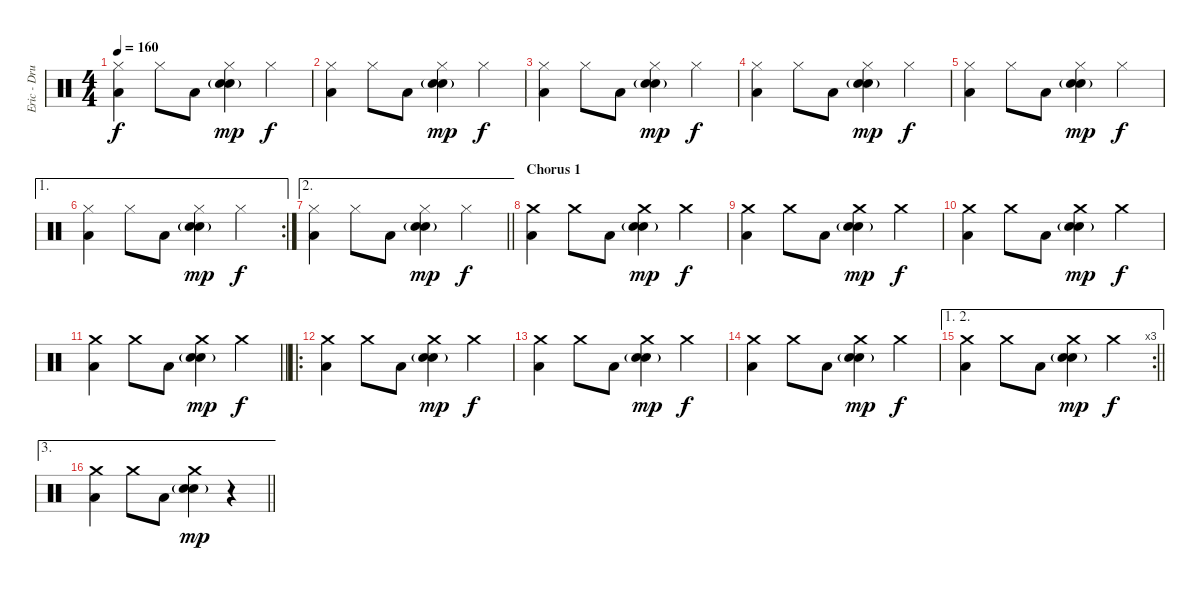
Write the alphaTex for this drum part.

\track ("Eric - Drums" "Eric - Dru") {instrument percussion}
\staff {score}
\articulation defaults
\ts (4 4)
\tempo 160
\clef neutral
\ks c
("Hi-Hat (closed)" "Low Floor Tom (hit)").4{dy f} "Hi-Hat (closed)".8 "Low Floor Tom (hit)".8 ("Hi-Hat (closed)" "Electric Snare (hit)" "Snare (hit) 2"{g}).4{dy mp} "Hi-Hat (closed)".4{dy f} |
("Hi-Hat (closed)" "Low Floor Tom (hit)").4 "Hi-Hat (closed)".8 "Low Floor Tom (hit)".8 ("Hi-Hat (closed)" "Electric Snare (hit)" "Snare (hit) 2"{g}).4{dy mp} "Hi-Hat (closed)".4{dy f} |
("Hi-Hat (closed)" "Low Floor Tom (hit)").4 "Hi-Hat (closed)".8 "Low Floor Tom (hit)".8 ("Hi-Hat (closed)" "Electric Snare (hit)" "Snare (hit) 2"{g}).4{dy mp} "Hi-Hat (closed)".4{dy f} |
("Hi-Hat (closed)" "Low Floor Tom (hit)").4 "Hi-Hat (closed)".8 "Low Floor Tom (hit)".8 ("Hi-Hat (closed)" "Electric Snare (hit)" "Snare (hit) 2"{g}).4{dy mp} "Hi-Hat (closed)".4{dy f} |
("Hi-Hat (closed)" "Low Floor Tom (hit)").4 "Hi-Hat (closed)".8 "Low Floor Tom (hit)".8 ("Hi-Hat (closed)" "Electric Snare (hit)" "Snare (hit) 2"{g}).4{dy mp} "Hi-Hat (closed)".4{dy f} |
\ae 1
\rc 2
("Hi-Hat (closed)" "Low Floor Tom (hit)").4 "Hi-Hat (closed)".8 "Low Floor Tom (hit)".8 ("Hi-Hat (closed)" "Electric Snare (hit)" "Snare (hit) 2"{g}).4{dy mp} "Hi-Hat (closed)".4{dy f} |
\ae 2
\barLineRight lightlight
("Hi-Hat (closed)" "Low Floor Tom (hit)").4 "Hi-Hat (closed)".8 "Low Floor Tom (hit)".8 ("Hi-Hat (closed)" "Electric Snare (hit)" "Snare (hit) 2"{g}).4{dy mp} "Hi-Hat (closed)".4{dy f} |
\section ("" "Chorus 1")
("Crash medium (hit)" "Low Floor Tom (hit)").4 "Crash medium (hit)".8 "Low Floor Tom (hit)".8 ("Crash medium (hit)" "Electric Snare (hit)" "Snare (hit) 2"{g}).4{dy mp} "Crash medium (hit)".4{dy f} |
("Crash medium (hit)" "Low Floor Tom (hit)").4 "Crash medium (hit)".8 "Low Floor Tom (hit)".8 ("Crash medium (hit)" "Electric Snare (hit)" "Snare (hit) 2"{g}).4{dy mp} "Crash medium (hit)".4{dy f} |
("Crash medium (hit)" "Low Floor Tom (hit)").4 "Crash medium (hit)".8 "Low Floor Tom (hit)".8 ("Crash medium (hit)" "Electric Snare (hit)" "Snare (hit) 2"{g}).4{dy mp} "Crash medium (hit)".4{dy f} |
\barLineRight lightlight
("Crash medium (hit)" "Low Floor Tom (hit)").4 "Crash medium (hit)".8 "Low Floor Tom (hit)".8 ("Crash medium (hit)" "Electric Snare (hit)" "Snare (hit) 2"{g}).4{dy mp} "Crash medium (hit)".4{dy f} |
\ro
("Crash medium (hit)" "Low Floor Tom (hit)").4 "Crash medium (hit)".8 "Low Floor Tom (hit)".8 ("Crash medium (hit)" "Electric Snare (hit)" "Snare (hit) 2"{g}).4{dy mp} "Crash medium (hit)".4{dy f} |
("Crash medium (hit)" "Low Floor Tom (hit)").4 "Crash medium (hit)".8 "Low Floor Tom (hit)".8 ("Crash medium (hit)" "Electric Snare (hit)" "Snare (hit) 2"{g}).4{dy mp} "Crash medium (hit)".4{dy f} |
("Crash medium (hit)" "Low Floor Tom (hit)").4 "Crash medium (hit)".8 "Low Floor Tom (hit)".8 ("Crash medium (hit)" "Electric Snare (hit)" "Snare (hit) 2"{g}).4{dy mp} "Crash medium (hit)".4{dy f} |
\ae (1 2)
\rc 3
\barLineRight lightlight
("Crash medium (hit)" "Low Floor Tom (hit)").4 "Crash medium (hit)".8 "Low Floor Tom (hit)".8 ("Crash medium (hit)" "Electric Snare (hit)" "Snare (hit) 2"{g}).4{dy mp} "Crash medium (hit)".4{dy f} |
\ae 3
\barLineRight lightlight
("Crash medium (hit)" "Low Floor Tom (hit)").4 "Crash medium (hit)".8 "Low Floor Tom (hit)".8 ("Crash medium (hit)" "Electric Snare (hit)" "Snare (hit) 2"{g}).4{dy mp} r.4
